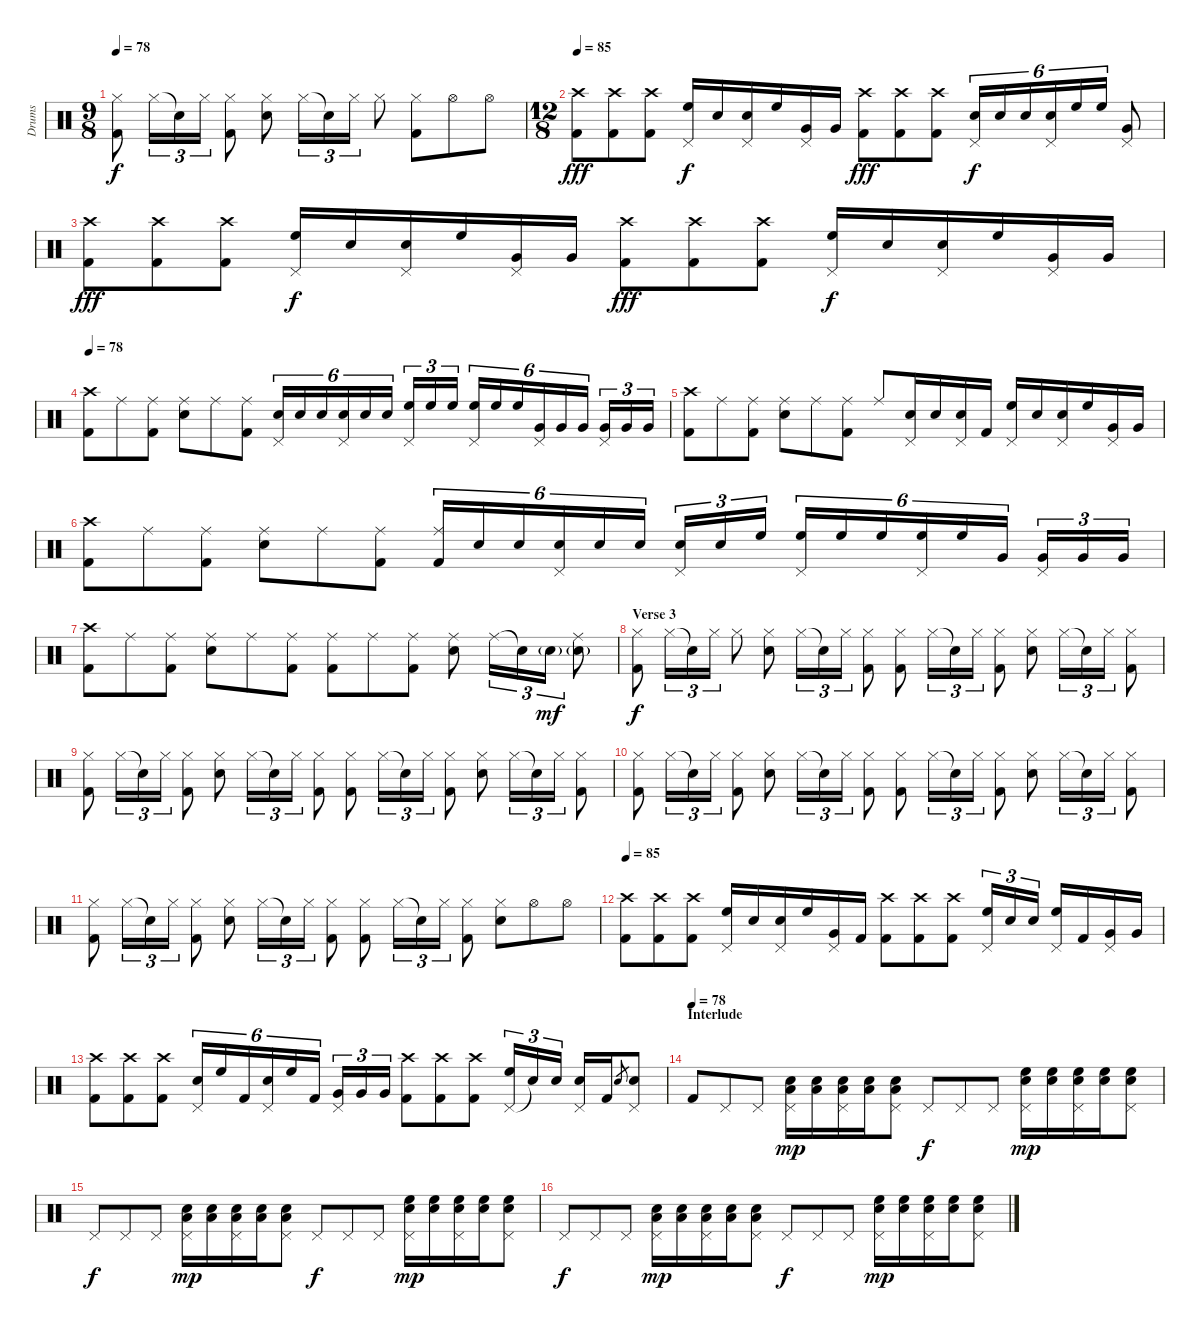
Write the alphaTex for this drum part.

\track ("Drums" "Drums") {instrument percussion}
\staff {score}
\articulation defaults
\ts (9 8)
\tempo 78
\clef neutral
\ks c
("Hi-Hat (closed)" "Kick (hit) 2").8{dy f} "Hi-Hat (closed)".16{tu (3 2)} "Snare (hit)"{t}.16{tu (3 2)} "Hi-Hat (closed)".16{tu (3 2)} ("Hi-Hat (closed)" "Kick (hit) 2").8 ("Hi-Hat (closed)" "Snare (hit) 2").8 "Hi-Hat (closed)".16{tu (3 2)} "Snare (hit)"{t}.16{tu (3 2)} "Hi-Hat (closed)".16{tu (3 2)} "Hi-Hat (closed)".8 ("Hi-Hat (closed)" "Kick (hit) 2").8 "Hi-Hat (open)".8 "Hi-Hat (open)".8 |
\ts (12 8)
\tempo 85
("Crash high (hit)" "Kick (hit) 2").8{dy fff volume 16} ("Crash high (hit)" "Kick (hit) 2").8 ("Crash high (hit)" "Kick (hit) 2").8 ("Pedal Hi-Hat (hit)" "High Floor Tom (hit)").16{dy f} "Snare (hit) 2".16 ("Pedal Hi-Hat (hit)" "Snare (hit) 2").16 "High Floor Tom (hit)".16 ("Pedal Hi-Hat (hit)" "Very Low Tom (hit)").16 "Very Low Tom (hit)".16 ("Crash high (hit)" "Kick (hit) 2").8{dy fff} ("Crash high (hit)" "Kick (hit) 2").8 ("Crash high (hit)" "Kick (hit) 2").8 ("Pedal Hi-Hat (hit)" "Snare (hit) 2").16{tu (6 4) dy f} "Snare (hit) 2".16{tu (6 4)} "Snare (hit) 2".16{tu (6 4)} ("Pedal Hi-Hat (hit)" "Snare (hit) 2").16{tu (6 4)} "High Floor Tom (hit)".16{tu (6 4)} "High Floor Tom (hit)".16{tu (6 4)} ("Pedal Hi-Hat (hit)" "Very Low Tom (hit)").8 |
("Crash high (hit)" "Kick (hit) 2").8{dy fff} ("Crash high (hit)" "Kick (hit) 2").8 ("Crash high (hit)" "Kick (hit) 2").8 ("Pedal Hi-Hat (hit)" "High Floor Tom (hit)").16{dy f} "Snare (hit) 2".16 ("Pedal Hi-Hat (hit)" "Snare (hit) 2").16 "High Floor Tom (hit)".16 ("Pedal Hi-Hat (hit)" "Very Low Tom (hit)").16 "Very Low Tom (hit)".16 ("Crash high (hit)" "Kick (hit) 2").8{dy fff} ("Crash high (hit)" "Kick (hit) 2").8 ("Crash high (hit)" "Kick (hit) 2").8 ("Pedal Hi-Hat (hit)" "High Floor Tom (hit)").16{dy f} "Snare (hit) 2".16 ("Pedal Hi-Hat (hit)" "Snare (hit) 2").16 "High Floor Tom (hit)".16 ("Pedal Hi-Hat (hit)" "Very Low Tom (hit)").16 "Very Low Tom (hit)".16 |
\tempo 78
("Crash high (hit)" "Kick (hit) 2").8{volume 10} "Ride (middle)".8 ("Ride (middle)" "Kick (hit) 2").8 ("Ride (middle)" "Snare (hit) 2").8 "Ride (middle)".8 ("Ride (middle)" "Kick (hit) 2").8 ("Pedal Hi-Hat (hit)" "Snare (hit) 2").16{tu (6 4)} "Snare (hit) 2".16{tu (6 4)} "Snare (hit) 2".16{tu (6 4)} ("Pedal Hi-Hat (hit)" "Snare (hit) 2").16{tu (6 4)} "Snare (hit) 2".16{tu (6 4)} "Snare (hit) 2".16{tu (6 4)} ("Pedal Hi-Hat (hit)" "High Floor Tom (hit)").16{tu (3 2)} "High Floor Tom (hit)".16{tu (3 2)} "High Floor Tom (hit)".16{tu (3 2)} ("Pedal Hi-Hat (hit)" "High Floor Tom (hit)").16{tu (6 4)} "High Floor Tom (hit)".16{tu (6 4)} "High Floor Tom (hit)".16{tu (6 4)} ("Pedal Hi-Hat (hit)" "Very Low Tom (hit)").16{tu (6 4)} "Very Low Tom (hit)".16{tu (6 4)} "Very Low Tom (hit)".16{tu (6 4)} ("Pedal Hi-Hat (hit)" "Very Low Tom (hit)").16{tu (3 2)} "Very Low Tom (hit)".16{tu (3 2)} "Very Low Tom (hit)".16{tu (3 2)} |
("Crash high (hit)" "Kick (hit) 2").8 "Ride (middle)".8 ("Ride (middle)" "Kick (hit) 2").8 ("Ride (middle)" "Snare (hit) 2").8 "Ride (middle)".8 ("Ride (middle)" "Kick (hit) 2").8 "Ride (middle)".8 ("Pedal Hi-Hat (hit)" "Snare (hit) 2").16 "Snare (hit) 2".16 ("Pedal Hi-Hat (hit)" "Snare (hit) 2").16 "Kick (hit) 2".16 ("Pedal Hi-Hat (hit)" "High Floor Tom (hit)").16 "Snare (hit) 2".16 ("Pedal Hi-Hat (hit)" "Snare (hit) 2").16 "High Floor Tom (hit)".16 ("Pedal Hi-Hat (hit)" "Very Low Tom (hit)").16 "Very Low Tom (hit)".16 |
("Crash high (hit)" "Kick (hit) 2").8 "Ride (middle)".8 ("Ride (middle)" "Kick (hit) 2").8 ("Ride (middle)" "Snare (hit) 2").8 "Ride (middle)".8 ("Ride (middle)" "Kick (hit) 2").8 ("Ride (middle)" "Kick (hit) 2").16{tu (6 4)} "Snare (hit) 2".16{tu (6 4)} "Snare (hit) 2".16{tu (6 4)} ("Pedal Hi-Hat (hit)" "Snare (hit) 2").16{tu (6 4)} "Snare (hit) 2".16{tu (6 4)} "Snare (hit) 2".16{tu (6 4)} ("Pedal Hi-Hat (hit)" "Snare (hit) 2").16{tu (3 2)} "Snare (hit) 2".16{tu (3 2)} "High Floor Tom (hit)".16{tu (3 2)} ("Pedal Hi-Hat (hit)" "High Floor Tom (hit)").16{tu (6 4)} "High Floor Tom (hit)".16{tu (6 4)} "High Floor Tom (hit)".16{tu (6 4)} ("Pedal Hi-Hat (hit)" "High Floor Tom (hit)").16{tu (6 4)} "High Floor Tom (hit)".16{tu (6 4)} "Very Low Tom (hit)".16{tu (6 4)} ("Pedal Hi-Hat (hit)" "Very Low Tom (hit)").16{tu (3 2)} "Very Low Tom (hit)".16{tu (3 2)} "Very Low Tom (hit)".16{tu (3 2)} |
("Crash high (hit)" "Kick (hit) 2").8 "Ride (middle)".8 ("Ride (middle)" "Kick (hit) 2").8 ("Ride (middle)" "Snare (hit) 2").8 "Ride (middle)".8 ("Ride (middle)" "Kick (hit) 2").8 ("Ride (middle)" "Kick (hit) 2").8 "Ride (middle)".8 ("Ride (middle)" "Kick (hit) 2").8 ("Ride (middle)" "Snare (hit) 2").8 "Ride (middle)".16{tu (3 2)} "Snare (hit)"{t}.16{tu (3 2)} "Snare (hit) 2"{g}.16{tu (3 2) dy mf} ("Ride (middle)" "Snare (hit) 2"{g}).8 |
\section ("" "Verse 3")
("Hi-Hat (closed)" "Kick (hit) 2").8{dy f} "Hi-Hat (closed)".16{tu (3 2)} "Snare (hit)"{t}.16{tu (3 2)} "Hi-Hat (closed)".16{tu (3 2)} "Hi-Hat (closed)".8 ("Hi-Hat (closed)" "Snare (hit) 2").8 "Hi-Hat (closed)".16{tu (3 2)} "Snare (hit)"{t}.16{tu (3 2)} "Hi-Hat (closed)".16{tu (3 2)} ("Hi-Hat (closed)" "Kick (hit) 2").8 ("Hi-Hat (closed)" "Kick (hit) 2").8 "Hi-Hat (closed)".16{tu (3 2)} "Snare (hit)"{t}.16{tu (3 2)} "Hi-Hat (closed)".16{tu (3 2)} ("Hi-Hat (closed)" "Kick (hit) 2").8 ("Hi-Hat (closed)" "Snare (hit) 2").8 "Hi-Hat (closed)".16{tu (3 2)} "Snare (hit)"{t}.16{tu (3 2)} "Hi-Hat (closed)".16{tu (3 2)} ("Hi-Hat (closed)" "Kick (hit) 2").8 |
("Hi-Hat (closed)" "Kick (hit) 2").8 "Hi-Hat (closed)".16{tu (3 2)} "Snare (hit)"{t}.16{tu (3 2)} "Hi-Hat (closed)".16{tu (3 2)} ("Hi-Hat (closed)" "Kick (hit) 2").8 ("Hi-Hat (closed)" "Snare (hit) 2").8 "Hi-Hat (closed)".16{tu (3 2)} "Snare (hit)"{t}.16{tu (3 2)} "Hi-Hat (closed)".16{tu (3 2)} ("Hi-Hat (closed)" "Kick (hit) 2").8 ("Hi-Hat (closed)" "Kick (hit) 2").8 "Hi-Hat (closed)".16{tu (3 2)} "Snare (hit)"{t}.16{tu (3 2)} "Hi-Hat (closed)".16{tu (3 2)} ("Hi-Hat (closed)" "Kick (hit) 2").8 ("Hi-Hat (closed)" "Snare (hit) 2").8 "Hi-Hat (closed)".16{tu (3 2)} "Snare (hit)"{t}.16{tu (3 2)} "Hi-Hat (closed)".16{tu (3 2)} ("Hi-Hat (closed)" "Kick (hit) 2").8 |
("Hi-Hat (closed)" "Kick (hit) 2").8 "Hi-Hat (closed)".16{tu (3 2)} "Snare (hit)"{t}.16{tu (3 2)} "Hi-Hat (closed)".16{tu (3 2)} ("Hi-Hat (closed)" "Kick (hit) 2").8 ("Hi-Hat (closed)" "Snare (hit) 2").8 "Hi-Hat (closed)".16{tu (3 2)} "Snare (hit)"{t}.16{tu (3 2)} "Hi-Hat (closed)".16{tu (3 2)} ("Hi-Hat (closed)" "Kick (hit) 2").8 ("Hi-Hat (closed)" "Kick (hit) 2").8 "Hi-Hat (closed)".16{tu (3 2)} "Snare (hit)"{t}.16{tu (3 2)} "Hi-Hat (closed)".16{tu (3 2)} ("Hi-Hat (closed)" "Kick (hit) 2").8 ("Hi-Hat (closed)" "Snare (hit) 2").8 "Hi-Hat (closed)".16{tu (3 2)} "Snare (hit)"{t}.16{tu (3 2)} "Hi-Hat (closed)".16{tu (3 2)} ("Hi-Hat (closed)" "Kick (hit) 2").8 |
("Hi-Hat (closed)" "Kick (hit) 2").8 "Hi-Hat (closed)".16{tu (3 2)} "Snare (hit)"{t}.16{tu (3 2)} "Hi-Hat (closed)".16{tu (3 2)} ("Hi-Hat (closed)" "Kick (hit) 2").8 ("Hi-Hat (closed)" "Snare (hit) 2").8 "Hi-Hat (closed)".16{tu (3 2)} "Snare (hit)"{t}.16{tu (3 2)} "Hi-Hat (closed)".16{tu (3 2)} ("Hi-Hat (closed)" "Kick (hit) 2").8 ("Hi-Hat (closed)" "Kick (hit) 2").8 "Hi-Hat (closed)".16{tu (3 2)} "Snare (hit)"{t}.16{tu (3 2)} "Hi-Hat (closed)".16{tu (3 2)} ("Hi-Hat (closed)" "Kick (hit) 2").8 ("Hi-Hat (closed)" "Snare (hit) 2").8 "Hi-Hat (open)".8 "Hi-Hat (open)".8 |
\tempo 85
("Crash high (hit)" "Kick (hit) 2").8{volume 16} ("Crash high (hit)" "Kick (hit) 2").8 ("Crash high (hit)" "Kick (hit) 2").8 ("Pedal Hi-Hat (hit)" "High Floor Tom (hit)").16 "Snare (hit) 2".16 ("Pedal Hi-Hat (hit)" "Snare (hit) 2").16 "High Floor Tom (hit)".16 ("Pedal Hi-Hat (hit)" "Very Low Tom (hit)").16 "Kick (hit) 2".16 ("Crash high (hit)" "Kick (hit) 2").8 ("Crash high (hit)" "Kick (hit) 2").8 ("Crash high (hit)" "Kick (hit) 2").8 ("Pedal Hi-Hat (hit)" "High Floor Tom (hit)").16{tu (3 2)} "Snare (hit) 2".16{tu (3 2)} "Snare (hit) 2".16{tu (3 2)} ("Pedal Hi-Hat (hit)" "High Floor Tom (hit)").16 "Kick (hit) 2".16 ("Pedal Hi-Hat (hit)" "Very Low Tom (hit)").16 "Very Low Tom (hit)".16 |
("Crash high (hit)" "Kick (hit) 2").8 ("Crash high (hit)" "Kick (hit) 2").8 ("Crash high (hit)" "Kick (hit) 2").8 ("Pedal Hi-Hat (hit)" "Snare (hit) 2").16{tu (6 4)} "High Floor Tom (hit)".16{tu (6 4)} "Kick (hit) 2".16{tu (6 4)} ("Pedal Hi-Hat (hit)" "Snare (hit) 2").16{tu (6 4)} "High Floor Tom (hit)".16{tu (6 4)} "Kick (hit) 2".16{tu (6 4)} ("Pedal Hi-Hat (hit)" "Very Low Tom (hit)").16{tu (3 2)} "Very Low Tom (hit)".16{tu (3 2)} "Very Low Tom (hit)".16{tu (3 2)} ("Crash high (hit)" "Kick (hit) 2").8 ("Crash high (hit)" "Kick (hit) 2").8 ("Crash high (hit)" "Kick (hit) 2").8 ("Pedal Hi-Hat (hit)" "High Floor Tom (hit)").16{tu (3 2)} "Snare (hit)"{t}.16{tu (3 2)} "Snare (hit) 2".16{tu (3 2)} ("Pedal Hi-Hat (hit)" "Snare (hit) 2").16 "Kick (hit) 2".16 "Snare (hit) 2".8{gr} ("Pedal Hi-Hat (hit)" "Snare (hit) 2").8 |
\section ("" "Interlude")
\tempo (78)
"Kick (hit) 2".8{volume 10} "Pedal Hi-Hat (hit)".8 "Pedal Hi-Hat (hit)".8 ("Pedal Hi-Hat (hit)" "Low Floor Tom (hit)" "Snare (hit) 2").16{dy mp} ("Low Floor Tom (hit)" "Snare (hit) 2").16 ("Pedal Hi-Hat (hit)" "Low Floor Tom (hit)" "Snare (hit) 2").16 ("Low Floor Tom (hit)" "Snare (hit) 2").16 ("Pedal Hi-Hat (hit)" "Low Floor Tom (hit)" "Snare (hit) 2").8 "Pedal Hi-Hat (hit)".8{dy f} "Pedal Hi-Hat (hit)".8 "Pedal Hi-Hat (hit)".8 ("Pedal Hi-Hat (hit)" "High Floor Tom (hit)" "Snare (hit) 2").16{dy mp} ("High Floor Tom (hit)" "Snare (hit) 2").16 ("Pedal Hi-Hat (hit)" "High Floor Tom (hit)" "Snare (hit) 2").16 ("High Floor Tom (hit)" "Snare (hit) 2").16 ("Pedal Hi-Hat (hit)" "High Floor Tom (hit)" "Snare (hit) 2").8 |
"Pedal Hi-Hat (hit)".8{dy f} "Pedal Hi-Hat (hit)".8 "Pedal Hi-Hat (hit)".8 ("Pedal Hi-Hat (hit)" "Low Floor Tom (hit)" "Snare (hit) 2").16{dy mp} ("Low Floor Tom (hit)" "Snare (hit) 2").16 ("Pedal Hi-Hat (hit)" "Low Floor Tom (hit)" "Snare (hit) 2").16 ("Low Floor Tom (hit)" "Snare (hit) 2").16 ("Pedal Hi-Hat (hit)" "Low Floor Tom (hit)" "Snare (hit) 2").8 "Pedal Hi-Hat (hit)".8{dy f} "Pedal Hi-Hat (hit)".8 "Pedal Hi-Hat (hit)".8 ("Pedal Hi-Hat (hit)" "High Floor Tom (hit)" "Snare (hit) 2").16{dy mp} ("High Floor Tom (hit)" "Snare (hit) 2").16 ("Pedal Hi-Hat (hit)" "High Floor Tom (hit)" "Snare (hit) 2").16 ("High Floor Tom (hit)" "Snare (hit) 2").16 ("Pedal Hi-Hat (hit)" "High Floor Tom (hit)" "Snare (hit) 2").8 |
"Pedal Hi-Hat (hit)".8{dy f} "Pedal Hi-Hat (hit)".8 "Pedal Hi-Hat (hit)".8 ("Pedal Hi-Hat (hit)" "Low Floor Tom (hit)" "Snare (hit) 2").16{dy mp} ("Low Floor Tom (hit)" "Snare (hit) 2").16 ("Pedal Hi-Hat (hit)" "Low Floor Tom (hit)" "Snare (hit) 2").16 ("Low Floor Tom (hit)" "Snare (hit) 2").16 ("Pedal Hi-Hat (hit)" "Low Floor Tom (hit)" "Snare (hit) 2").8 "Pedal Hi-Hat (hit)".8{dy f} "Pedal Hi-Hat (hit)".8 "Pedal Hi-Hat (hit)".8 ("Pedal Hi-Hat (hit)" "High Floor Tom (hit)" "Snare (hit) 2").16{dy mp} ("High Floor Tom (hit)" "Snare (hit) 2").16 ("Pedal Hi-Hat (hit)" "High Floor Tom (hit)" "Snare (hit) 2").16 ("High Floor Tom (hit)" "Snare (hit) 2").16 ("Pedal Hi-Hat (hit)" "High Floor Tom (hit)" "Snare (hit) 2").8
